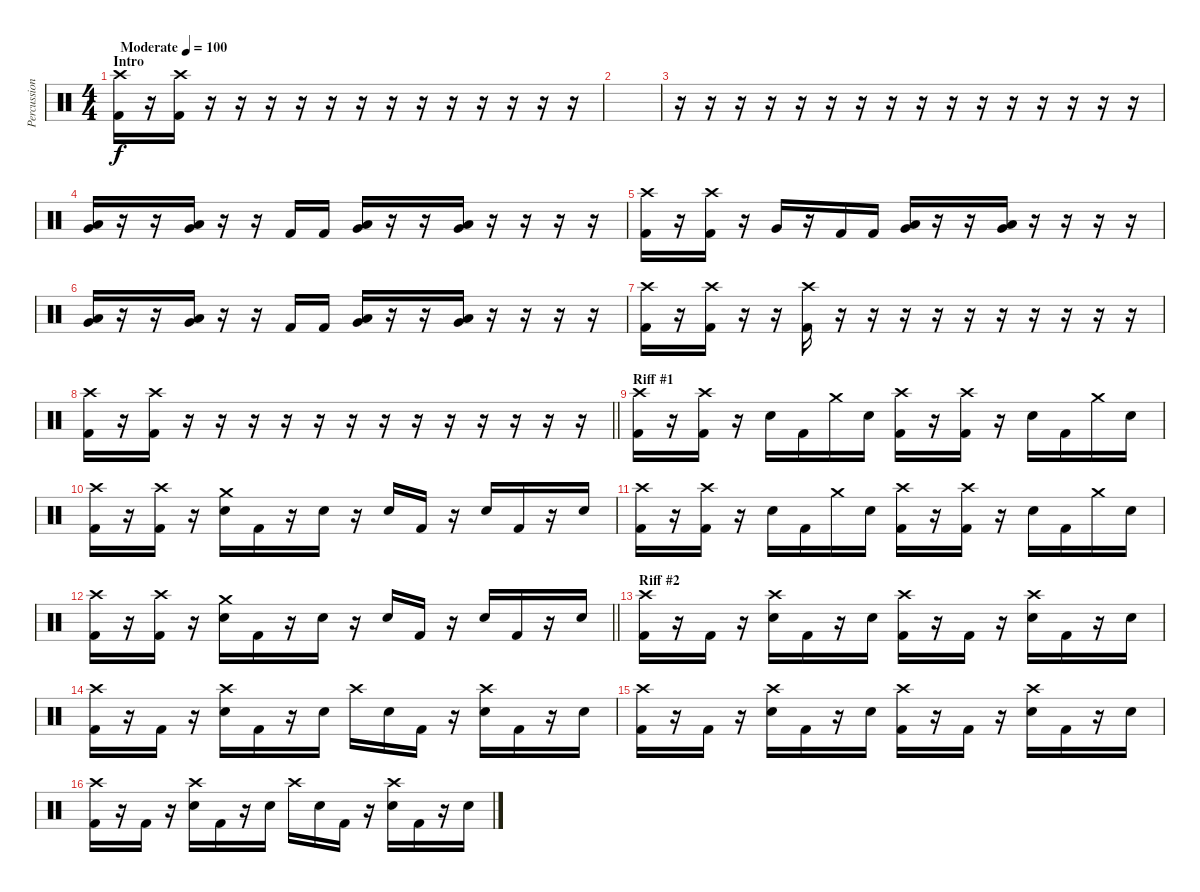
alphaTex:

\track ("Percussion" "Percussion") {instrument percussion}
\staff {score}
\articulation defaults
\ts (4 4)
\section ("" "Intro")
\tempo (100 "Moderate")
\clef neutral
\ks c
("Crash high (hit)" "Kick (hit) 2").16{dy f} r.16 ("Crash high (hit)" "Kick (hit) 2").16 r.16 r.16 r.16 r.16 r.16 r.16 r.16 r.16 r.16 r.16 r.16 r.16 r.16 |
|
r.16 r.16 r.16 r.16 r.16 r.16 r.16 r.16 r.16 r.16 r.16 r.16 r.16 r.16 r.16 r.16 |
("Low Tom (hit)" "Very Low Tom (hit)").16 r.16 r.16 ("Very Low Tom (hit)" "Low Tom (hit)").16 r.16 r.16 "Kick (hit) 2".16 "Kick (hit) 2".16 ("Low Tom (hit)" "Very Low Tom (hit)").16 r.16 r.16 ("Low Tom (hit)" "Very Low Tom (hit)").16 r.16 r.16 r.16 r.16 |
("Crash high (hit)" "Kick (hit) 2").16 r.16 ("Crash high (hit)" "Kick (hit) 2").16 r.16 "Very Low Tom (hit)".16 r.16 "Kick (hit) 2".16 "Kick (hit) 2".16 ("Low Tom (hit)" "Very Low Tom (hit)").16 r.16 r.16 ("Low Tom (hit)" "Very Low Tom (hit)").16 r.16 r.16 r.16 r.16 |
("Low Tom (hit)" "Very Low Tom (hit)").16 r.16 r.16 ("Very Low Tom (hit)" "Low Tom (hit)").16 r.16 r.16 "Kick (hit) 2".16 "Kick (hit) 2".16 ("Low Tom (hit)" "Very Low Tom (hit)").16 r.16 r.16 ("Low Tom (hit)" "Very Low Tom (hit)").16 r.16 r.16 r.16 r.16 |
("Crash high (hit)" "Kick (hit) 2").16 r.16 ("Crash high (hit)" "Kick (hit) 2").16 r.16 r.16 ("Crash high (hit)" "Kick (hit) 2").16 r.16 r.16 r.16 r.16 r.16 r.16 r.16 r.16 r.16 r.16 |
\barLineRight lightlight
("Crash high (hit)" "Kick (hit) 2").16 r.16 ("Crash high (hit)" "Kick (hit) 2").16 r.16 r.16 r.16 r.16 r.16 r.16 r.16 r.16 r.16 r.16 r.16 r.16 r.16 |
\section ("" "Riff #1")
("Crash high (hit)" "Kick (hit) 2").16 r.16 ("Crash high (hit)" "Kick (hit) 2").16 r.16 "Electric Snare (hit)".16 "Kick (hit) 2".16 "Crash medium (hit)".16 "Electric Snare (hit)".16 ("Crash high (hit)" "Kick (hit) 2").16 r.16 ("Crash high (hit)" "Kick (hit) 2").16 r.16 "Electric Snare (hit)".16 "Kick (hit) 2".16 "Crash medium (hit)".16 "Electric Snare (hit)".16 |
("Crash high (hit)" "Kick (hit) 2").16 r.16 ("Crash high (hit)" "Kick (hit) 2").16 r.16 ("Crash medium (hit)" "Electric Snare (hit)").16 "Kick (hit) 2".16 r.16 "Electric Snare (hit)".16 r.16 "Electric Snare (hit)".16 "Kick (hit) 2".16 r.16 "Electric Snare (hit)".16 "Kick (hit) 2".16 r.16 "Electric Snare (hit)".16 |
("Crash high (hit)" "Kick (hit) 2").16 r.16 ("Crash high (hit)" "Kick (hit) 2").16 r.16 "Electric Snare (hit)".16 "Kick (hit) 2".16 "Crash medium (hit)".16 "Electric Snare (hit)".16 ("Crash high (hit)" "Kick (hit) 2").16 r.16 ("Crash high (hit)" "Kick (hit) 2").16 r.16 "Electric Snare (hit)".16 "Kick (hit) 2".16 "Crash medium (hit)".16 "Electric Snare (hit)".16 |
\barLineRight lightlight
("Crash high (hit)" "Kick (hit) 2").16 r.16 ("Crash high (hit)" "Kick (hit) 2").16 r.16 ("Crash medium (hit)" "Electric Snare (hit)").16 "Kick (hit) 2".16 r.16 "Electric Snare (hit)".16 r.16 "Electric Snare (hit)".16 "Kick (hit) 2".16 r.16 "Electric Snare (hit)".16 "Kick (hit) 2".16 r.16 "Electric Snare (hit)".16 |
\section ("" "Riff #2")
("Crash high (hit)" "Kick (hit) 2").16 r.16 "Kick (hit) 2".16 r.16 ("Crash high (hit)" "Electric Snare (hit)").16 "Kick (hit) 2".16 r.16 "Electric Snare (hit)".16 ("Crash high (hit)" "Kick (hit) 2").16 r.16 "Kick (hit) 2".16 r.16 ("Crash high (hit)" "Electric Snare (hit)").16 "Kick (hit) 2".16 r.16 "Electric Snare (hit)".16 |
("Crash high (hit)" "Kick (hit) 2").16 r.16 "Kick (hit) 2".16 r.16 ("Crash high (hit)" "Electric Snare (hit)").16 "Kick (hit) 2".16 r.16 "Electric Snare (hit)".16 "Crash high (hit)".16 "Electric Snare (hit)".16 "Kick (hit) 2".16 r.16 ("Crash high (hit)" "Electric Snare (hit)").16 "Kick (hit) 2".16 r.16 "Electric Snare (hit)".16 |
("Crash high (hit)" "Kick (hit) 2").16 r.16 "Kick (hit) 2".16 r.16 ("Crash high (hit)" "Electric Snare (hit)").16 "Kick (hit) 2".16 r.16 "Electric Snare (hit)".16 ("Crash high (hit)" "Kick (hit) 2").16 r.16 "Kick (hit) 2".16 r.16 ("Crash high (hit)" "Electric Snare (hit)").16 "Kick (hit) 2".16 r.16 "Electric Snare (hit)".16 |
("Crash high (hit)" "Kick (hit) 2").16 r.16 "Kick (hit) 2".16 r.16 ("Crash high (hit)" "Electric Snare (hit)").16 "Kick (hit) 2".16 r.16 "Electric Snare (hit)".16 "Crash high (hit)".16 "Electric Snare (hit)".16 "Kick (hit) 2".16 r.16 ("Crash high (hit)" "Electric Snare (hit)").16 "Kick (hit) 2".16 r.16 "Electric Snare (hit)".16
